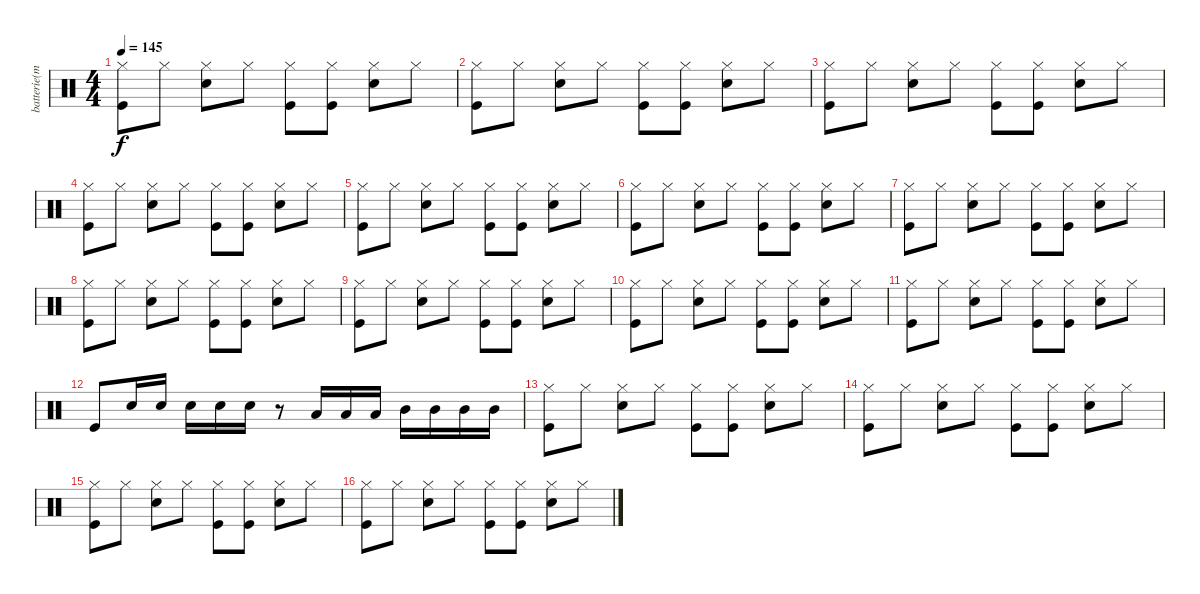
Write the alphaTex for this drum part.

\track ("batterie(micky)" "batterie(m") {instrument percussion}
\staff {score}
\articulation defaults
\ts (4 4)
\tempo 145
\clef neutral
\ks c
("Hi-Hat (closed)" "Kick (hit)").8{dy f} "Hi-Hat (closed)".8 ("Hi-Hat (closed)" "Snare (hit) 2").8 "Hi-Hat (closed)".8 ("Hi-Hat (closed)" "Kick (hit)").8 ("Hi-Hat (closed)" "Kick (hit)").8 ("Hi-Hat (closed)" "Snare (hit) 2").8 "Hi-Hat (closed)".8 |
("Hi-Hat (closed)" "Kick (hit)").8 "Hi-Hat (closed)".8 ("Hi-Hat (closed)" "Snare (hit) 2").8 "Hi-Hat (closed)".8 ("Hi-Hat (closed)" "Kick (hit)").8 ("Hi-Hat (closed)" "Kick (hit)").8 ("Hi-Hat (closed)" "Snare (hit) 2").8 "Hi-Hat (closed)".8 |
("Hi-Hat (closed)" "Kick (hit)").8 "Hi-Hat (closed)".8 ("Hi-Hat (closed)" "Snare (hit) 2").8 "Hi-Hat (closed)".8 ("Hi-Hat (closed)" "Kick (hit)").8 ("Hi-Hat (closed)" "Kick (hit)").8 ("Hi-Hat (closed)" "Snare (hit) 2").8 "Hi-Hat (closed)".8 |
("Hi-Hat (closed)" "Kick (hit)").8 "Hi-Hat (closed)".8 ("Hi-Hat (closed)" "Snare (hit) 2").8 "Hi-Hat (closed)".8 ("Hi-Hat (closed)" "Kick (hit)").8 ("Hi-Hat (closed)" "Kick (hit)").8 ("Hi-Hat (closed)" "Snare (hit) 2").8 "Hi-Hat (closed)".8 |
("Hi-Hat (closed)" "Kick (hit)").8 "Hi-Hat (closed)".8 ("Hi-Hat (closed)" "Snare (hit) 2").8 "Hi-Hat (closed)".8 ("Hi-Hat (closed)" "Kick (hit)").8 ("Hi-Hat (closed)" "Kick (hit)").8 ("Hi-Hat (closed)" "Snare (hit) 2").8 "Hi-Hat (closed)".8 |
("Hi-Hat (closed)" "Kick (hit)").8 "Hi-Hat (closed)".8 ("Hi-Hat (closed)" "Snare (hit) 2").8 "Hi-Hat (closed)".8 ("Hi-Hat (closed)" "Kick (hit)").8 ("Hi-Hat (closed)" "Kick (hit)").8 ("Hi-Hat (closed)" "Snare (hit) 2").8 "Hi-Hat (closed)".8 |
("Hi-Hat (closed)" "Kick (hit)").8 "Hi-Hat (closed)".8 ("Hi-Hat (closed)" "Snare (hit) 2").8 "Hi-Hat (closed)".8 ("Hi-Hat (closed)" "Kick (hit)").8 ("Hi-Hat (closed)" "Kick (hit)").8 ("Hi-Hat (closed)" "Snare (hit) 2").8 "Hi-Hat (closed)".8 |
("Hi-Hat (closed)" "Kick (hit)").8 "Hi-Hat (closed)".8 ("Hi-Hat (closed)" "Snare (hit) 2").8 "Hi-Hat (closed)".8 ("Hi-Hat (closed)" "Kick (hit)").8 ("Hi-Hat (closed)" "Kick (hit)").8 ("Hi-Hat (closed)" "Snare (hit) 2").8 "Hi-Hat (closed)".8 |
("Hi-Hat (closed)" "Kick (hit)").8 "Hi-Hat (closed)".8 ("Hi-Hat (closed)" "Snare (hit) 2").8 "Hi-Hat (closed)".8 ("Hi-Hat (closed)" "Kick (hit)").8 ("Hi-Hat (closed)" "Kick (hit)").8 ("Hi-Hat (closed)" "Snare (hit) 2").8 "Hi-Hat (closed)".8 |
("Hi-Hat (closed)" "Kick (hit)").8 "Hi-Hat (closed)".8 ("Hi-Hat (closed)" "Snare (hit) 2").8 "Hi-Hat (closed)".8 ("Hi-Hat (closed)" "Kick (hit)").8 ("Hi-Hat (closed)" "Kick (hit)").8 ("Hi-Hat (closed)" "Snare (hit) 2").8 "Hi-Hat (closed)".8 |
("Hi-Hat (closed)" "Kick (hit)").8 "Hi-Hat (closed)".8 ("Hi-Hat (closed)" "Snare (hit) 2").8 "Hi-Hat (closed)".8 ("Hi-Hat (closed)" "Kick (hit)").8 ("Hi-Hat (closed)" "Kick (hit)").8 ("Hi-Hat (closed)" "Snare (hit) 2").8 "Hi-Hat (closed)".8 |
"Kick (hit)".8 "Snare (hit) 2".16 "Snare (hit) 2".16 "Snare (hit) 2".16 "Snare (hit) 2".16 "Snare (hit) 2".16 r.8 "Low Tom (hit)".16 "Low Tom (hit)".16 "Low Tom (hit)".16 "Mid Tom (hit)".16 "Mid Tom (hit)".16 "Mid Tom (hit)".16 "Mid Tom (hit)".16 |
("Hi-Hat (closed)" "Kick (hit)").8 "Hi-Hat (closed)".8 ("Hi-Hat (closed)" "Snare (hit) 2").8 "Hi-Hat (closed)".8 ("Hi-Hat (closed)" "Kick (hit)").8 ("Hi-Hat (closed)" "Kick (hit)").8 ("Hi-Hat (closed)" "Snare (hit) 2").8 "Hi-Hat (closed)".8 |
("Hi-Hat (closed)" "Kick (hit)").8 "Hi-Hat (closed)".8 ("Hi-Hat (closed)" "Snare (hit) 2").8 "Hi-Hat (closed)".8 ("Hi-Hat (closed)" "Kick (hit)").8 ("Hi-Hat (closed)" "Kick (hit)").8 ("Hi-Hat (closed)" "Snare (hit) 2").8 "Hi-Hat (closed)".8 |
("Hi-Hat (closed)" "Kick (hit)").8 "Hi-Hat (closed)".8 ("Hi-Hat (closed)" "Snare (hit) 2").8 "Hi-Hat (closed)".8 ("Hi-Hat (closed)" "Kick (hit)").8 ("Hi-Hat (closed)" "Kick (hit)").8 ("Hi-Hat (closed)" "Snare (hit) 2").8 "Hi-Hat (closed)".8 |
("Hi-Hat (closed)" "Kick (hit)").8 "Hi-Hat (closed)".8 ("Hi-Hat (closed)" "Snare (hit) 2").8 "Hi-Hat (closed)".8 ("Hi-Hat (closed)" "Kick (hit)").8 ("Hi-Hat (closed)" "Kick (hit)").8 ("Hi-Hat (closed)" "Snare (hit) 2").8 "Hi-Hat (closed)".8
